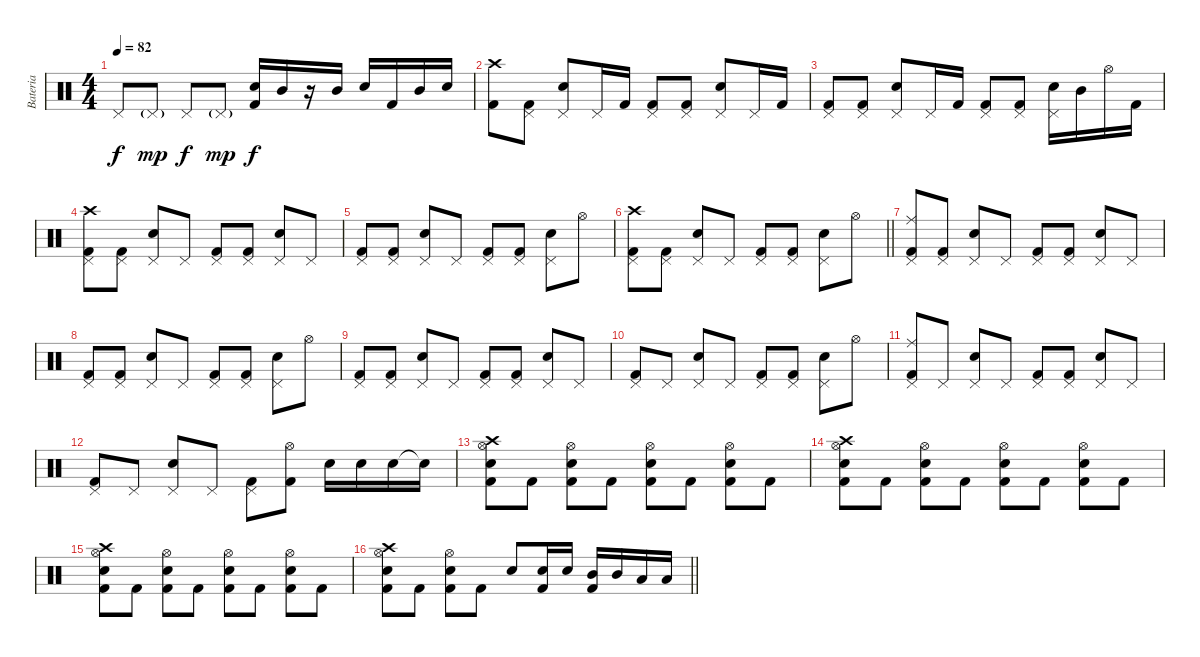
\track ("Bateria" "Bateria") {instrument percussion}
\staff {score}
\articulation defaults
\ts (4 4)
\tempo 82
\clef neutral
\ks c "Pedal Hi-Hat (hit)".8{dy f} "Pedal Hi-Hat (hit)"{g}.8{dy mp} "Pedal Hi-Hat (hit)".8{dy f} "Pedal Hi-Hat (hit)"{g}.8{dy mp}
("Snare (hit) 2" "Kick (hit) 2").16{dy f} "Mid Tom (hit)".16 r.16 "Mid Tom (hit)".16 "Snare (hit) 2".16 "Kick (hit) 2".16 "Mid Tom (hit)".16 "Snare (hit) 2".16 |
("Crash high (hit)" "Kick (hit) 2").8 ("Pedal Hi-Hat (hit)" "Kick (hit) 2").8 ("Pedal Hi-Hat (hit)" "Snare (hit) 2").8 "Pedal Hi-Hat (hit)".16 "Kick (hit) 2".16 ("Pedal Hi-Hat (hit)" "Kick (hit) 2").8 ("Pedal Hi-Hat (hit)" "Kick (hit) 2").8 ("Pedal Hi-Hat (hit)" "Snare (hit) 2").8 "Pedal Hi-Hat (hit)".16 "Kick (hit) 2".16 |
("Pedal Hi-Hat (hit)" "Kick (hit) 2").8 ("Pedal Hi-Hat (hit)" "Kick (hit) 2").8 ("Pedal Hi-Hat (hit)" "Snare (hit) 2").8 "Pedal Hi-Hat (hit)".16 "Kick (hit) 2".16 ("Pedal Hi-Hat (hit)" "Kick (hit) 2").8 ("Pedal Hi-Hat (hit)" "Kick (hit) 2").8 ("Pedal Hi-Hat (hit)" "Snare (hit) 2").16 "Mid Tom (hit)".16 "Hi-Hat (open)".16 "Kick (hit) 2".16 |
("Crash high (hit)" "Pedal Hi-Hat (hit)" "Kick (hit) 2").8 ("Pedal Hi-Hat (hit)" "Kick (hit) 2").8 ("Pedal Hi-Hat (hit)" "Snare (hit) 2").8 "Pedal Hi-Hat (hit)".8 ("Pedal Hi-Hat (hit)" "Kick (hit) 2").8 ("Pedal Hi-Hat (hit)" "Kick (hit) 2").8 ("Pedal Hi-Hat (hit)" "Snare (hit) 2").8 "Pedal Hi-Hat (hit)".8 |
("Pedal Hi-Hat (hit)" "Kick (hit) 2").8 ("Pedal Hi-Hat (hit)" "Kick (hit) 2").8 ("Pedal Hi-Hat (hit)" "Snare (hit) 2").8 "Pedal Hi-Hat (hit)".8 ("Pedal Hi-Hat (hit)" "Kick (hit) 2").8 ("Pedal Hi-Hat (hit)" "Kick (hit) 2").8 ("Pedal Hi-Hat (hit)" "Snare (hit) 2").8 "Hi-Hat (open)".8 |
\barLineRight lightlight
("Crash high (hit)" "Pedal Hi-Hat (hit)" "Kick (hit) 2").8 ("Pedal Hi-Hat (hit)" "Kick (hit) 2").8 ("Pedal Hi-Hat (hit)" "Snare (hit) 2").8 "Pedal Hi-Hat (hit)".8 ("Pedal Hi-Hat (hit)" "Kick (hit) 2").8 ("Pedal Hi-Hat (hit)" "Kick (hit) 2").8 ("Pedal Hi-Hat (hit)" "Snare (hit) 2").8 "Hi-Hat (open)".8 |
("Ride (middle)" "Pedal Hi-Hat (hit)" "Kick (hit) 2").8 ("Pedal Hi-Hat (hit)" "Kick (hit) 2").8 ("Pedal Hi-Hat (hit)" "Snare (hit) 2").8 "Pedal Hi-Hat (hit)".8 ("Pedal Hi-Hat (hit)" "Kick (hit) 2").8 ("Pedal Hi-Hat (hit)" "Kick (hit) 2").8 ("Pedal Hi-Hat (hit)" "Snare (hit) 2").8 "Pedal Hi-Hat (hit)".8 |
("Pedal Hi-Hat (hit)" "Kick (hit) 2").8 ("Pedal Hi-Hat (hit)" "Kick (hit) 2").8 ("Pedal Hi-Hat (hit)" "Snare (hit) 2").8 "Pedal Hi-Hat (hit)".8 ("Pedal Hi-Hat (hit)" "Kick (hit) 2").8 ("Pedal Hi-Hat (hit)" "Kick (hit) 2").8 ("Pedal Hi-Hat (hit)" "Snare (hit) 2").8 "Hi-Hat (open)".8 |
("Pedal Hi-Hat (hit)" "Kick (hit) 2").8 ("Pedal Hi-Hat (hit)" "Kick (hit) 2").8 ("Pedal Hi-Hat (hit)" "Snare (hit) 2").8 "Pedal Hi-Hat (hit)".8 ("Pedal Hi-Hat (hit)" "Kick (hit) 2").8 ("Pedal Hi-Hat (hit)" "Kick (hit) 2").8 ("Pedal Hi-Hat (hit)" "Snare (hit) 2").8 "Pedal Hi-Hat (hit)".8 |
("Pedal Hi-Hat (hit)" "Kick (hit) 2").8 "Pedal Hi-Hat (hit)".8 ("Pedal Hi-Hat (hit)" "Snare (hit) 2").8 "Pedal Hi-Hat (hit)".8 ("Pedal Hi-Hat (hit)" "Kick (hit) 2").8 ("Pedal Hi-Hat (hit)" "Kick (hit) 2").8 ("Pedal Hi-Hat (hit)" "Snare (hit) 2").8 "Hi-Hat (open)".8 |
("Ride (middle)" "Pedal Hi-Hat (hit)" "Kick (hit) 2").8 "Pedal Hi-Hat (hit)".8 ("Pedal Hi-Hat (hit)" "Snare (hit) 2").8 "Pedal Hi-Hat (hit)".8 ("Pedal Hi-Hat (hit)" "Kick (hit) 2").8 ("Pedal Hi-Hat (hit)" "Kick (hit) 2").8 ("Pedal Hi-Hat (hit)" "Snare (hit) 2").8 "Pedal Hi-Hat (hit)".8 |
("Pedal Hi-Hat (hit)" "Kick (hit) 2").8 "Pedal Hi-Hat (hit)".8 ("Pedal Hi-Hat (hit)" "Snare (hit) 2").8 "Pedal Hi-Hat (hit)".8 ("Pedal Hi-Hat (hit)" "Kick (hit) 2").8 ("Hi-Hat (open)" "Kick (hit) 2").8 "Snare (hit) 2".16 "Snare (hit) 2".16 "Snare (hit) 2".16 "Snare (hit)"{t}.16 |
("Crash high (hit)" "Hi-Hat (open)" "Snare (hit) 2" "Kick (hit) 2").8 "Kick (hit) 2".8 ("Hi-Hat (open)" "Snare (hit) 2" "Kick (hit) 2").8 "Kick (hit) 2".8 ("Hi-Hat (open)" "Snare (hit) 2" "Kick (hit) 2").8 "Kick (hit) 2".8 ("Hi-Hat (open)" "Snare (hit) 2" "Kick (hit) 2").8 "Kick (hit) 2".8 |
("Crash high (hit)" "Hi-Hat (open)" "Snare (hit) 2" "Kick (hit) 2").8 "Kick (hit) 2".8 ("Hi-Hat (open)" "Snare (hit) 2" "Kick (hit) 2").8 "Kick (hit) 2".8 ("Hi-Hat (open)" "Snare (hit) 2" "Kick (hit) 2").8 "Kick (hit) 2".8 ("Hi-Hat (open)" "Snare (hit) 2" "Kick (hit) 2").8 "Kick (hit) 2".8 |
("Crash high (hit)" "Hi-Hat (open)" "Snare (hit) 2" "Kick (hit) 2").8 "Kick (hit) 2".8 ("Hi-Hat (open)" "Snare (hit) 2" "Kick (hit) 2").8 "Kick (hit) 2".8 ("Hi-Hat (open)" "Snare (hit) 2" "Kick (hit) 2").8 "Kick (hit) 2".8 ("Hi-Hat (open)" "Snare (hit) 2" "Kick (hit) 2").8 "Kick (hit) 2".8 |
\barLineRight lightlight
("Crash high (hit)" "Hi-Hat (open)" "Snare (hit) 2" "Kick (hit) 2").8 "Kick (hit) 2".8 ("Hi-Hat (open)" "Snare (hit) 2" "Kick (hit) 2").8 "Kick (hit) 2".8 "Snare (hit) 2".8 ("Snare (hit) 2" "Kick (hit) 2").16 "Snare (hit) 2".16 ("Mid Tom (hit)" "Kick (hit) 2").16 "Mid Tom (hit)".16 "Low Tom (hit)".16 "Low Tom (hit)".16
